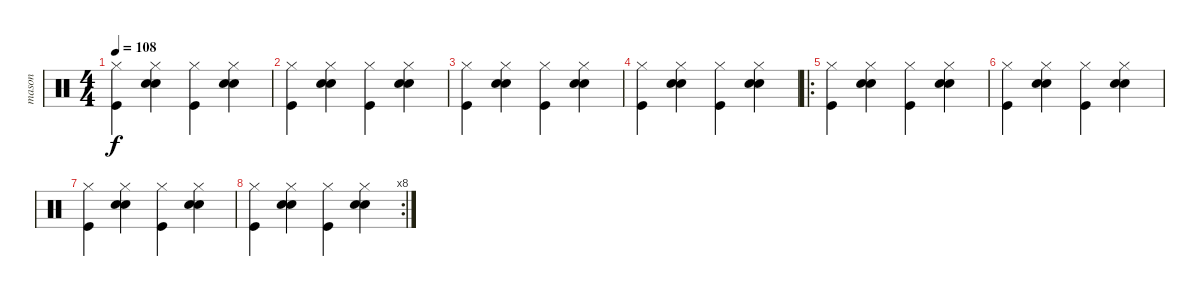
\track ("mason" "mason") {instrument percussion}
\staff {score}
\articulation defaults
\ts (4 4)
\tempo 108
\clef neutral
\ks c
("Kick (hit)" "Hi-Hat (closed)").4{dy f} ("Snare (hit) 2" "Snare (hit) 2" "Hi-Hat (closed)").4 ("Kick (hit)" "Hi-Hat (closed)").4 ("Snare (hit) 2" "Snare (hit) 2" "Hi-Hat (closed)").4 |
("Kick (hit)" "Hi-Hat (closed)").4 ("Snare (hit) 2" "Snare (hit) 2" "Hi-Hat (closed)").4 ("Kick (hit)" "Hi-Hat (closed)").4 ("Snare (hit) 2" "Snare (hit) 2" "Hi-Hat (closed)").4 |
("Kick (hit)" "Hi-Hat (closed)").4 ("Snare (hit) 2" "Snare (hit) 2" "Hi-Hat (closed)").4 ("Kick (hit)" "Hi-Hat (closed)").4 ("Snare (hit) 2" "Snare (hit) 2" "Hi-Hat (closed)").4 |
("Kick (hit)" "Hi-Hat (closed)").4 ("Snare (hit) 2" "Snare (hit) 2" "Hi-Hat (closed)").4 ("Kick (hit)" "Hi-Hat (closed)").4 ("Snare (hit) 2" "Snare (hit) 2" "Hi-Hat (closed)").4 |
\ro
("Kick (hit)" "Hi-Hat (closed)").4 ("Snare (hit) 2" "Snare (hit) 2" "Hi-Hat (closed)").4 ("Kick (hit)" "Hi-Hat (closed)").4 ("Snare (hit) 2" "Snare (hit) 2" "Hi-Hat (closed)").4 |
("Kick (hit)" "Hi-Hat (closed)").4 ("Snare (hit) 2" "Snare (hit) 2" "Hi-Hat (closed)").4 ("Kick (hit)" "Hi-Hat (closed)").4 ("Snare (hit) 2" "Snare (hit) 2" "Hi-Hat (closed)").4 |
("Kick (hit)" "Hi-Hat (closed)").4 ("Snare (hit) 2" "Snare (hit) 2" "Hi-Hat (closed)").4 ("Kick (hit)" "Hi-Hat (closed)").4 ("Snare (hit) 2" "Snare (hit) 2" "Hi-Hat (closed)").4 |
\rc 8
("Kick (hit)" "Hi-Hat (closed)").4 ("Snare (hit) 2" "Snare (hit) 2" "Hi-Hat (closed)").4 ("Kick (hit)" "Hi-Hat (closed)").4 ("Snare (hit) 2" "Snare (hit) 2" "Hi-Hat (closed)").4
